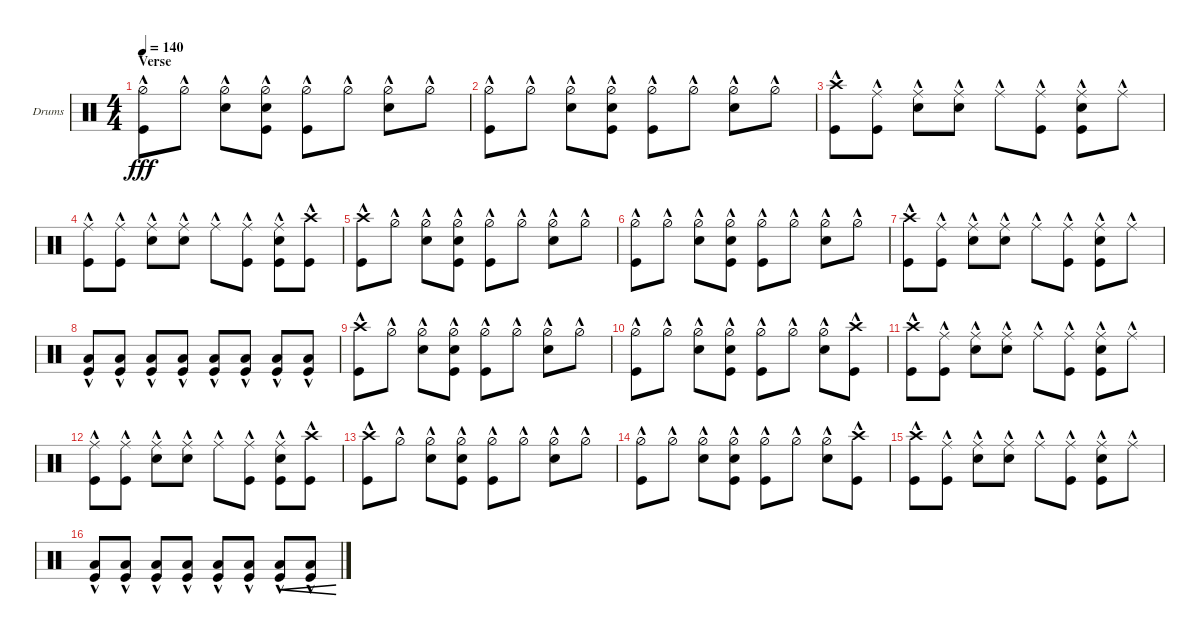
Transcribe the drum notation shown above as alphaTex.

\bracketExtendMode groupsimilarinstruments
\firstSystemTrackNameOrientation horizontal
\otherSystemsTrackNameOrientation horizontal
\track ("BigMc" "Drums") {instrument percussion}
\staff {score}
\articulation defaults
\ts (4 4)
\section ("" "Verse")
\tempo 140
\clef neutral
\ks c
("Hi-Hat (half)"{hac} "Kick (hit)"{hac}).8{dy fff} "Hi-Hat (half)"{hac}.8 ("Hi-Hat (half)"{hac} "Snare (hit) 2"{hac}).8 ("Hi-Hat (half)"{hac} "Kick (hit)"{hac} "Snare (hit) 2"{hac}).8 ("Hi-Hat (half)"{hac} "Kick (hit)"{hac}).8 "Hi-Hat (half)"{hac}.8 ("Hi-Hat (half)"{hac} "Snare (hit) 2"{hac}).8 "Hi-Hat (half)"{hac}.8 |
("Hi-Hat (half)"{hac} "Kick (hit)"{hac}).8 "Hi-Hat (half)"{hac}.8 ("Hi-Hat (half)"{hac} "Snare (hit) 2"{hac}).8 ("Hi-Hat (half)"{hac} "Kick (hit)"{hac} "Snare (hit) 2"{hac}).8 ("Hi-Hat (half)"{hac} "Kick (hit)"{hac}).8 "Hi-Hat (half)"{hac}.8 ("Hi-Hat (half)"{hac} "Snare (hit) 2"{hac}).8 "Hi-Hat (half)"{hac}.8 |
("Kick (hit)"{hac} "Crash high (hit)"{hac}).8 ("Ride (middle)"{hac} "Kick (hit)"{hac}).8 ("Ride (middle)"{hac} "Snare (hit) 2"{hac}).8 ("Ride (middle)"{hac} "Snare (hit) 2"{hac}).8 "Ride (middle)"{hac}.8 ("Ride (middle)"{hac} "Kick (hit)"{hac}).8 ("Ride (middle)"{hac} "Snare (hit) 2"{hac} "Kick (hit)"{hac}).8 "Ride (middle)"{hac}.8 |
("Kick (hit)"{hac} "Ride (middle)"{hac}).8 ("Ride (middle)"{hac} "Kick (hit)"{hac}).8 ("Ride (middle)"{hac} "Snare (hit) 2"{hac}).8 ("Ride (middle)"{hac} "Snare (hit) 2"{hac}).8 "Ride (middle)"{hac}.8 ("Ride (middle)"{hac} "Kick (hit)"{hac}).8 ("Ride (middle)"{hac} "Snare (hit) 2"{hac} "Kick (hit)"{hac}).8 ("Crash high (hit)"{hac} "Kick (hit)"{hac}).8 |
("Kick (hit)"{hac} "Crash high (hit)"{hac}).8 "Hi-Hat (half)"{hac}.8 ("Hi-Hat (half)"{hac} "Snare (hit) 2"{hac}).8 ("Hi-Hat (half)"{hac} "Kick (hit)"{hac} "Snare (hit) 2"{hac}).8 ("Hi-Hat (half)"{hac} "Kick (hit)"{hac}).8 "Hi-Hat (half)"{hac}.8 ("Hi-Hat (half)"{hac} "Snare (hit) 2"{hac}).8 "Hi-Hat (half)"{hac}.8 |
("Hi-Hat (half)"{hac} "Kick (hit)"{hac}).8 "Hi-Hat (half)"{hac}.8 ("Hi-Hat (half)"{hac} "Snare (hit) 2"{hac}).8 ("Hi-Hat (half)"{hac} "Kick (hit)"{hac} "Snare (hit) 2"{hac}).8 ("Hi-Hat (half)"{hac} "Kick (hit)"{hac}).8 "Hi-Hat (half)"{hac}.8 ("Hi-Hat (half)"{hac} "Snare (hit) 2"{hac}).8 "Hi-Hat (half)"{hac}.8 |
("Kick (hit)"{hac} "Crash high (hit)"{hac}).8 ("Ride (middle)"{hac} "Kick (hit)"{hac}).8 ("Ride (middle)"{hac} "Snare (hit) 2"{hac}).8 ("Ride (middle)"{hac} "Snare (hit) 2"{hac}).8 "Ride (middle)"{hac}.8 ("Ride (middle)"{hac} "Kick (hit)"{hac}).8 ("Ride (middle)"{hac} "Snare (hit) 2"{hac} "Kick (hit)"{hac}).8 "Ride (middle)"{hac}.8 |
("Low Tom (hit)"{hac} "Kick (hit)"{hac}).8 ("Low Tom (hit)"{hac} "Kick (hit)"{hac}).8 ("Low Tom (hit)"{hac} "Kick (hit)"{hac}).8 ("Low Tom (hit)"{hac} "Kick (hit)"{hac}).8 ("Low Tom (hit)"{hac} "Kick (hit)"{hac}).8 ("Low Tom (hit)"{hac} "Kick (hit)"{hac}).8 ("Low Tom (hit)"{hac} "Kick (hit)"{hac}).8 ("Low Tom (hit)"{hac} "Kick (hit)"{hac}).8 |
("Kick (hit)"{hac} "Crash high (hit)"{hac}).8 "Hi-Hat (half)"{hac}.8 ("Hi-Hat (half)"{hac} "Snare (hit) 2"{hac}).8 ("Hi-Hat (half)"{hac} "Kick (hit)"{hac} "Snare (hit) 2"{hac}).8 ("Hi-Hat (half)"{hac} "Kick (hit)"{hac}).8 "Hi-Hat (half)"{hac}.8 ("Hi-Hat (half)"{hac} "Snare (hit) 2"{hac}).8 "Hi-Hat (half)"{hac}.8 |
("Hi-Hat (half)"{hac} "Kick (hit)"{hac}).8 "Hi-Hat (half)"{hac}.8 ("Hi-Hat (half)"{hac} "Snare (hit) 2"{hac}).8 ("Hi-Hat (half)"{hac} "Kick (hit)"{hac} "Snare (hit) 2"{hac}).8 ("Hi-Hat (half)"{hac} "Kick (hit)"{hac}).8 "Hi-Hat (half)"{hac}.8 ("Hi-Hat (half)"{hac} "Snare (hit) 2"{hac}).8 ("Crash high (hit)"{hac} "Kick (hit)"{hac}).8 |
("Kick (hit)"{hac} "Crash high (hit)"{hac}).8 ("Ride (middle)"{hac} "Kick (hit)"{hac}).8 ("Ride (middle)"{hac} "Snare (hit) 2"{hac}).8 ("Ride (middle)"{hac} "Snare (hit) 2"{hac}).8 "Ride (middle)"{hac}.8 ("Ride (middle)"{hac} "Kick (hit)"{hac}).8 ("Ride (middle)"{hac} "Snare (hit) 2"{hac} "Kick (hit)"{hac}).8 "Ride (middle)"{hac}.8 |
("Kick (hit)"{hac} "Ride (middle)"{hac}).8 ("Ride (middle)"{hac} "Kick (hit)"{hac}).8 ("Ride (middle)"{hac} "Snare (hit) 2"{hac}).8 ("Ride (middle)"{hac} "Snare (hit) 2"{hac}).8 "Ride (middle)"{hac}.8 ("Ride (middle)"{hac} "Kick (hit)"{hac}).8 ("Ride (middle)"{hac} "Snare (hit) 2"{hac} "Kick (hit)"{hac}).8 ("Crash high (hit)"{hac} "Kick (hit)"{hac}).8 |
("Kick (hit)"{hac} "Crash high (hit)"{hac}).8 "Hi-Hat (half)"{hac}.8 ("Hi-Hat (half)"{hac} "Snare (hit) 2"{hac}).8 ("Hi-Hat (half)"{hac} "Kick (hit)"{hac} "Snare (hit) 2"{hac}).8 ("Hi-Hat (half)"{hac} "Kick (hit)"{hac}).8 "Hi-Hat (half)"{hac}.8 ("Hi-Hat (half)"{hac} "Snare (hit) 2"{hac}).8 "Hi-Hat (half)"{hac}.8 |
("Hi-Hat (half)"{hac} "Kick (hit)"{hac}).8 "Hi-Hat (half)"{hac}.8 ("Hi-Hat (half)"{hac} "Snare (hit) 2"{hac}).8 ("Hi-Hat (half)"{hac} "Kick (hit)"{hac} "Snare (hit) 2"{hac}).8 ("Hi-Hat (half)"{hac} "Kick (hit)"{hac}).8 "Hi-Hat (half)"{hac}.8 ("Hi-Hat (half)"{hac} "Snare (hit) 2"{hac}).8 ("Crash high (hit)"{hac} "Kick (hit)"{hac}).8 |
("Kick (hit)"{hac} "Crash high (hit)"{hac}).8 ("Ride (middle)"{hac} "Kick (hit)"{hac}).8 ("Ride (middle)"{hac} "Snare (hit) 2"{hac}).8 ("Ride (middle)"{hac} "Snare (hit) 2"{hac}).8 "Ride (middle)"{hac}.8 ("Ride (middle)"{hac} "Kick (hit)"{hac}).8 ("Ride (middle)"{hac} "Snare (hit) 2"{hac} "Kick (hit)"{hac}).8 "Ride (middle)"{hac}.8 |
("Low Tom (hit)"{hac} "Kick (hit)"{hac}).8 ("Low Tom (hit)"{hac} "Kick (hit)"{hac}).8 ("Low Tom (hit)"{hac} "Kick (hit)"{hac}).8 ("Low Tom (hit)"{hac} "Kick (hit)"{hac}).8 ("Low Tom (hit)"{hac} "Kick (hit)"{hac}).8 ("Low Tom (hit)"{hac} "Kick (hit)"{hac}).8 ("Low Tom (hit)"{hac} "Kick (hit)"{hac}).8{cre} ("Low Tom (hit)"{hac} "Kick (hit)"{hac}).8{cre}
